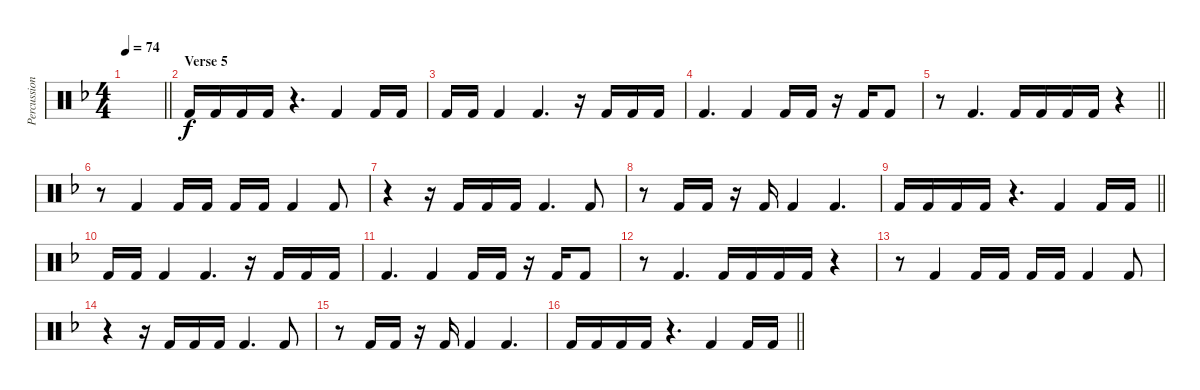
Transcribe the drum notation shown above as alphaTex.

\track ("Percussion" "Percussion") {instrument percussion}
\staff {score}
\articulation defaults
\ts (4 4)
\tempo 74
\clef neutral
\barLineRight lightlight
\ks f
|
\section ("" "Verse 5")
"Kick (hit) 2".16 "Kick (hit) 2".16 "Kick (hit) 2".16 "Kick (hit) 2".16 r.4{d} "Kick (hit) 2".4 "Kick (hit) 2".16 "Kick (hit) 2".16 |
"Kick (hit) 2".16 "Kick (hit) 2".16 "Kick (hit) 2".4 "Kick (hit) 2".4{d} r.16 "Kick (hit) 2".16 "Kick (hit) 2".16 "Kick (hit) 2".16 |
"Kick (hit) 2".4{d} "Kick (hit) 2".4 "Kick (hit) 2".16 "Kick (hit) 2".16 r.16 "Kick (hit) 2".16 "Kick (hit) 2".8 |
\barLineRight lightlight
r.8 "Kick (hit) 2".4{d} "Kick (hit) 2".16 "Kick (hit) 2".16 "Kick (hit) 2".16 "Kick (hit) 2".16 r.4 |
r.8 "Kick (hit) 2".4 "Kick (hit) 2".16 "Kick (hit) 2".16 "Kick (hit) 2".16 "Kick (hit) 2".16 "Kick (hit) 2".4 "Kick (hit) 2".8 |
r.4 r.16 "Kick (hit) 2".16 "Kick (hit) 2".16 "Kick (hit) 2".16 "Kick (hit) 2".4{d} "Kick (hit) 2".8 |
r.8 "Kick (hit) 2".16 "Kick (hit) 2".16 r.16 "Kick (hit) 2".16 "Kick (hit) 2".4 "Kick (hit) 2".4{d} |
\barLineRight lightlight "Kick (hit) 2".16 "Kick (hit) 2".16 "Kick (hit) 2".16 "Kick (hit) 2".16
r.4{d} "Kick (hit) 2".4 "Kick (hit) 2".16 "Kick (hit) 2".16 |
"Kick (hit) 2".16 "Kick (hit) 2".16 "Kick (hit) 2".4 "Kick (hit) 2".4{d} r.16 "Kick (hit) 2".16 "Kick (hit) 2".16 "Kick (hit) 2".16 |
"Kick (hit) 2".4{d} "Kick (hit) 2".4 "Kick (hit) 2".16 "Kick (hit) 2".16 r.16 "Kick (hit) 2".16 "Kick (hit) 2".8 |
r.8 "Kick (hit) 2".4{d} "Kick (hit) 2".16 "Kick (hit) 2".16 "Kick (hit) 2".16 "Kick (hit) 2".16 r.4 |
r.8 "Kick (hit) 2".4 "Kick (hit) 2".16 "Kick (hit) 2".16 "Kick (hit) 2".16 "Kick (hit) 2".16 "Kick (hit) 2".4 "Kick (hit) 2".8 |
r.4 r.16 "Kick (hit) 2".16 "Kick (hit) 2".16 "Kick (hit) 2".16 "Kick (hit) 2".4{d} "Kick (hit) 2".8 |
r.8 "Kick (hit) 2".16 "Kick (hit) 2".16 r.16 "Kick (hit) 2".16 "Kick (hit) 2".4 "Kick (hit) 2".4{d} |
\barLineRight lightlight "Kick (hit) 2".16 "Kick (hit) 2".16 "Kick (hit) 2".16 "Kick (hit) 2".16
r.4{d} "Kick (hit) 2".4 "Kick (hit) 2".16 "Kick (hit) 2".16
